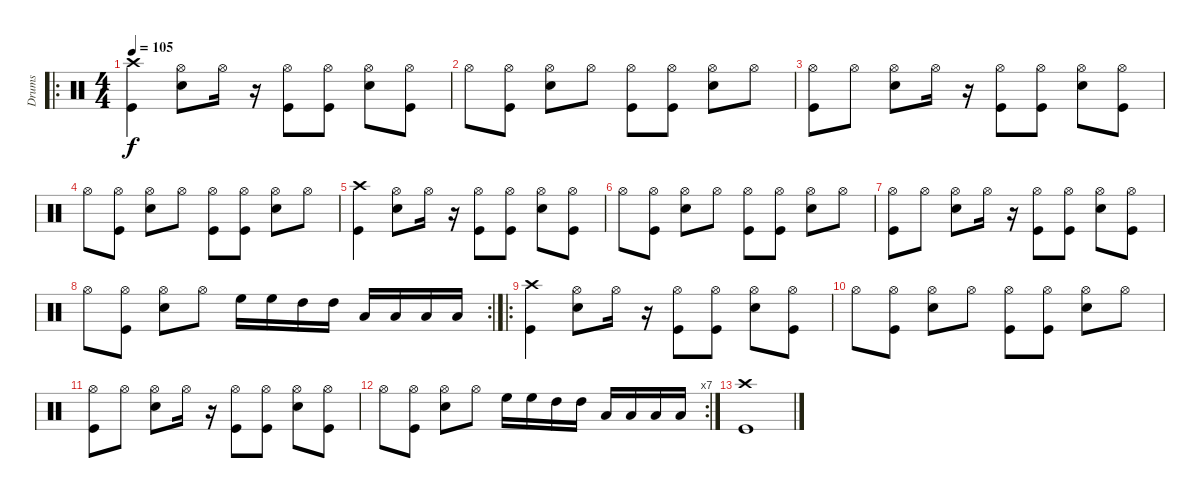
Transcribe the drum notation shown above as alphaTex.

\track ("Drums" "Drums") {instrument percussion}
\staff {score}
\articulation defaults
\ro
\ts (4 4)
\tempo 105
\clef neutral
\ks c
("Crash high (hit)" "Kick (hit)").4{dy f} ("Hi-Hat (open)" "Snare (hit) 2").8 "Hi-Hat (open)".16 r.16 ("Hi-Hat (open)" "Kick (hit)").8 ("Hi-Hat (open)" "Kick (hit)").8 ("Hi-Hat (open)" "Snare (hit) 2").8 ("Hi-Hat (open)" "Kick (hit)").8 |
"Hi-Hat (open)".8 ("Hi-Hat (open)" "Kick (hit)").8 ("Hi-Hat (open)" "Snare (hit) 2").8 "Hi-Hat (open)".8 ("Hi-Hat (open)" "Kick (hit)").8 ("Hi-Hat (open)" "Kick (hit)").8 ("Hi-Hat (open)" "Snare (hit) 2").8 "Hi-Hat (open)".8 |
("Hi-Hat (open)" "Kick (hit)").8 "Hi-Hat (open)".8 ("Hi-Hat (open)" "Snare (hit) 2").8 "Hi-Hat (open)".16 r.16 ("Hi-Hat (open)" "Kick (hit)").8 ("Hi-Hat (open)" "Kick (hit)").8 ("Hi-Hat (open)" "Snare (hit) 2").8 ("Hi-Hat (open)" "Kick (hit)").8 |
"Hi-Hat (open)".8 ("Hi-Hat (open)" "Kick (hit)").8 ("Hi-Hat (open)" "Snare (hit) 2").8 "Hi-Hat (open)".8 ("Hi-Hat (open)" "Kick (hit)").8 ("Hi-Hat (open)" "Kick (hit)").8 ("Hi-Hat (open)" "Snare (hit) 2").8 "Hi-Hat (open)".8 |
("Crash high (hit)" "Kick (hit)").4 ("Hi-Hat (open)" "Snare (hit) 2").8 "Hi-Hat (open)".16 r.16 ("Hi-Hat (open)" "Kick (hit)").8 ("Hi-Hat (open)" "Kick (hit)").8 ("Hi-Hat (open)" "Snare (hit) 2").8 ("Hi-Hat (open)" "Kick (hit)").8 |
"Hi-Hat (open)".8 ("Hi-Hat (open)" "Kick (hit)").8 ("Hi-Hat (open)" "Snare (hit) 2").8 "Hi-Hat (open)".8 ("Hi-Hat (open)" "Kick (hit)").8 ("Hi-Hat (open)" "Kick (hit)").8 ("Hi-Hat (open)" "Snare (hit) 2").8 "Hi-Hat (open)".8 |
("Hi-Hat (open)" "Kick (hit)").8 "Hi-Hat (open)".8 ("Hi-Hat (open)" "Snare (hit) 2").8 "Hi-Hat (open)".16 r.16 ("Hi-Hat (open)" "Kick (hit)").8 ("Hi-Hat (open)" "Kick (hit)").8 ("Hi-Hat (open)" "Snare (hit) 2").8 ("Hi-Hat (open)" "Kick (hit)").8 |
\rc 2 "Hi-Hat (open)".8
("Hi-Hat (open)" "Kick (hit)").8 ("Hi-Hat (open)" "Snare (hit) 2").8 "Hi-Hat (open)".8 "High Floor Tom (hit)".16 "High Floor Tom (hit)".16 "High Tom (hit)".16 "High Tom (hit)".16 "Low Tom (hit)".16 "Low Tom (hit)".16 "Low Floor Tom (hit)".16 "Low Floor Tom (hit)".16 |
\ro
("Crash high (hit)" "Kick (hit)").4 ("Hi-Hat (open)" "Snare (hit) 2").8 "Hi-Hat (open)".16 r.16 ("Hi-Hat (open)" "Kick (hit)").8 ("Hi-Hat (open)" "Kick (hit)").8 ("Hi-Hat (open)" "Snare (hit) 2").8 ("Hi-Hat (open)" "Kick (hit)").8 |
"Hi-Hat (open)".8 ("Hi-Hat (open)" "Kick (hit)").8 ("Hi-Hat (open)" "Snare (hit) 2").8 "Hi-Hat (open)".8 ("Hi-Hat (open)" "Kick (hit)").8 ("Hi-Hat (open)" "Kick (hit)").8 ("Hi-Hat (open)" "Snare (hit) 2").8 "Hi-Hat (open)".8 |
("Hi-Hat (open)" "Kick (hit)").8 "Hi-Hat (open)".8 ("Hi-Hat (open)" "Snare (hit) 2").8 "Hi-Hat (open)".16 r.16 ("Hi-Hat (open)" "Kick (hit)").8 ("Hi-Hat (open)" "Kick (hit)").8 ("Hi-Hat (open)" "Snare (hit) 2").8 ("Hi-Hat (open)" "Kick (hit)").8 |
\rc 7 "Hi-Hat (open)".8
("Hi-Hat (open)" "Kick (hit)").8 ("Hi-Hat (open)" "Snare (hit) 2").8 "Hi-Hat (open)".8 "High Floor Tom (hit)".16 "High Floor Tom (hit)".16 "High Tom (hit)".16 "High Tom (hit)".16 "Low Tom (hit)".16 "Low Tom (hit)".16 "Low Floor Tom (hit)".16 "Low Floor Tom (hit)".16 |
("Crash high (hit)" "Kick (hit)").1
